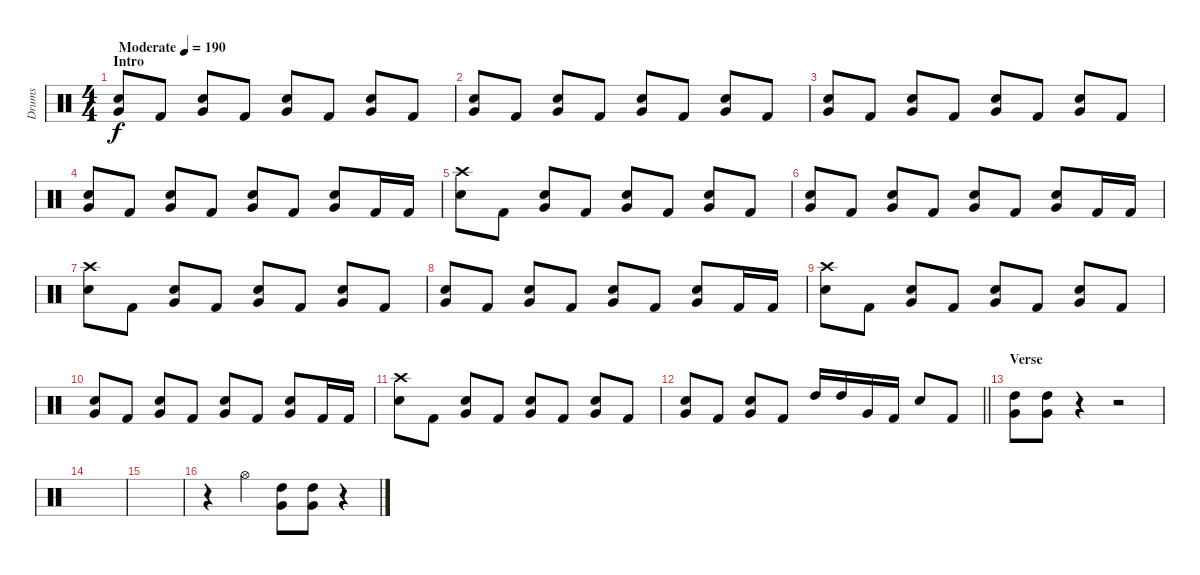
\track ("Drums" "Drums") {instrument percussion}
\staff {score}
\articulation defaults
\ts (4 4)
\section ("" "Intro")
\tempo (190 "Moderate")
\clef neutral
\ks c
("Snare (hit) 2" "Very Low Tom (hit)").8{dy f} "Kick (hit) 2".8 ("Snare (hit) 2" "Very Low Tom (hit)").8 "Kick (hit) 2".8 ("Snare (hit) 2" "Very Low Tom (hit)").8 "Kick (hit) 2".8 ("Snare (hit) 2" "Very Low Tom (hit)").8 "Kick (hit) 2".8 |
("Snare (hit) 2" "Very Low Tom (hit)").8 "Kick (hit) 2".8 ("Snare (hit) 2" "Very Low Tom (hit)").8 "Kick (hit) 2".8 ("Snare (hit) 2" "Very Low Tom (hit)").8 "Kick (hit) 2".8 ("Snare (hit) 2" "Very Low Tom (hit)").8 "Kick (hit) 2".8 |
("Snare (hit) 2" "Very Low Tom (hit)").8 "Kick (hit) 2".8 ("Snare (hit) 2" "Very Low Tom (hit)").8 "Kick (hit) 2".8 ("Snare (hit) 2" "Very Low Tom (hit)").8 "Kick (hit) 2".8 ("Snare (hit) 2" "Very Low Tom (hit)").8 "Kick (hit) 2".8 |
("Snare (hit) 2" "Very Low Tom (hit)").8 "Kick (hit) 2".8 ("Snare (hit) 2" "Very Low Tom (hit)").8 "Kick (hit) 2".8 ("Snare (hit) 2" "Very Low Tom (hit)").8 "Kick (hit) 2".8 ("Snare (hit) 2" "Very Low Tom (hit)").8 "Kick (hit) 2".16 "Kick (hit) 2".16 |
("Crash high (hit)" "Snare (hit) 2").8 "Kick (hit) 2".8 ("Snare (hit) 2" "Very Low Tom (hit)").8 "Kick (hit) 2".8 ("Snare (hit) 2" "Very Low Tom (hit)").8 "Kick (hit) 2".8 ("Snare (hit) 2" "Very Low Tom (hit)").8 "Kick (hit) 2".8 |
("Snare (hit) 2" "Very Low Tom (hit)").8 "Kick (hit) 2".8 ("Snare (hit) 2" "Very Low Tom (hit)").8 "Kick (hit) 2".8 ("Snare (hit) 2" "Very Low Tom (hit)").8 "Kick (hit) 2".8 ("Snare (hit) 2" "Very Low Tom (hit)").8 "Kick (hit) 2".16 "Kick (hit) 2".16 |
("Crash high (hit)" "Snare (hit) 2").8 "Kick (hit) 2".8 ("Snare (hit) 2" "Very Low Tom (hit)").8 "Kick (hit) 2".8 ("Snare (hit) 2" "Very Low Tom (hit)").8 "Kick (hit) 2".8 ("Snare (hit) 2" "Very Low Tom (hit)").8 "Kick (hit) 2".8 |
("Snare (hit) 2" "Very Low Tom (hit)").8 "Kick (hit) 2".8 ("Snare (hit) 2" "Very Low Tom (hit)").8 "Kick (hit) 2".8 ("Snare (hit) 2" "Very Low Tom (hit)").8 "Kick (hit) 2".8 ("Snare (hit) 2" "Very Low Tom (hit)").8 "Kick (hit) 2".16 "Kick (hit) 2".16 |
("Crash high (hit)" "Snare (hit) 2").8 "Kick (hit) 2".8 ("Snare (hit) 2" "Very Low Tom (hit)").8 "Kick (hit) 2".8 ("Snare (hit) 2" "Very Low Tom (hit)").8 "Kick (hit) 2".8 ("Snare (hit) 2" "Very Low Tom (hit)").8 "Kick (hit) 2".8 |
("Snare (hit) 2" "Very Low Tom (hit)").8 "Kick (hit) 2".8 ("Snare (hit) 2" "Very Low Tom (hit)").8 "Kick (hit) 2".8 ("Snare (hit) 2" "Very Low Tom (hit)").8 "Kick (hit) 2".8 ("Snare (hit) 2" "Very Low Tom (hit)").8 "Kick (hit) 2".16 "Kick (hit) 2".16 |
("Crash high (hit)" "Snare (hit) 2").8 "Kick (hit) 2".8 ("Snare (hit) 2" "Very Low Tom (hit)").8 "Kick (hit) 2".8 ("Snare (hit) 2" "Very Low Tom (hit)").8 "Kick (hit) 2".8 ("Snare (hit) 2" "Very Low Tom (hit)").8 "Kick (hit) 2".8 |
\barLineRight lightlight
("Snare (hit) 2" "Very Low Tom (hit)").8 "Kick (hit) 2".8 ("Snare (hit) 2" "Very Low Tom (hit)").8 "Kick (hit) 2".8 "High Tom (hit)".16 "High Tom (hit)".16 "Very Low Tom (hit)".16 "Kick (hit) 2".16 "Snare (hit) 2".8 "Kick (hit) 2".8 |
\section ("" "Verse")
("High Tom (hit)" "Very Low Tom (hit)").8 ("High Tom (hit)" "Very Low Tom (hit)").8 r.4 r.2 |
|
|
r.4 "Hi-Hat (open)".4 ("High Tom (hit)" "Very Low Tom (hit)").8 ("High Tom (hit)" "Very Low Tom (hit)").8 r.4
